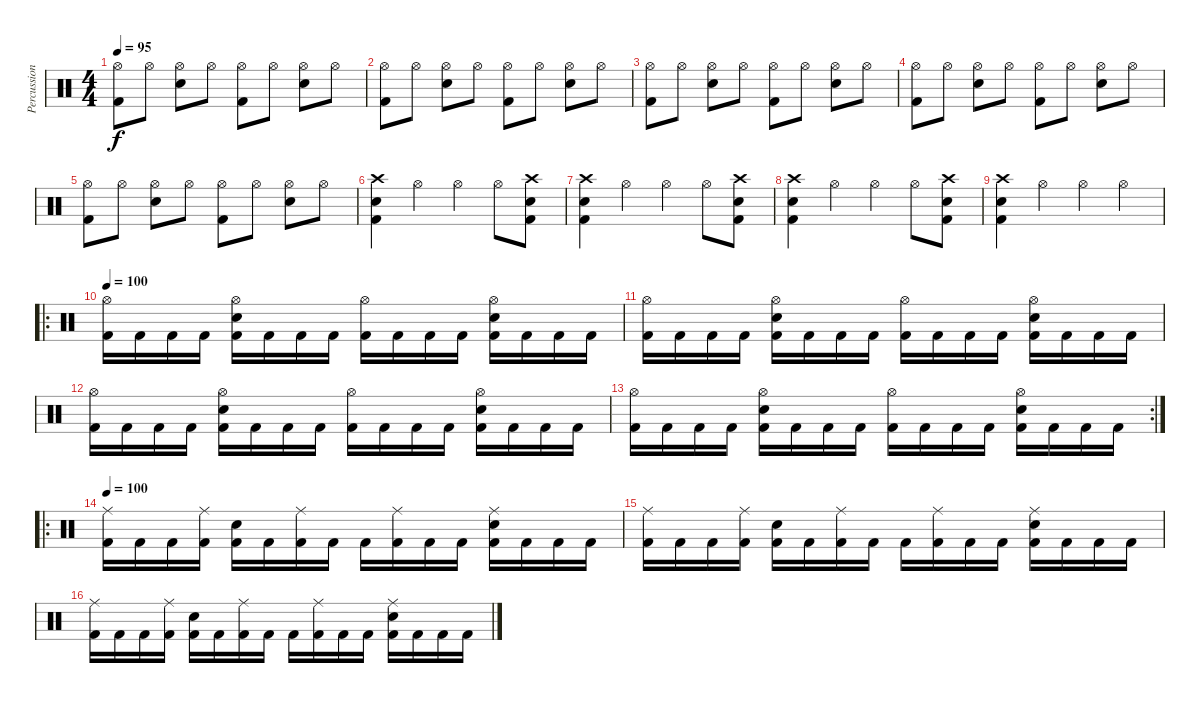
\track ("Percussion" "Percussion") {instrument percussion}
\staff {score}
\articulation defaults
\ts (4 4)
\tempo 95
\clef neutral
\ks c
("Hi-Hat (open)" "Kick (hit) 2").8{dy f} "Hi-Hat (open)".8 ("Hi-Hat (open)" "Electric Snare (hit)").8 "Hi-Hat (open)".8 ("Hi-Hat (open)" "Kick (hit) 2").8 "Hi-Hat (open)".8 ("Hi-Hat (open)" "Electric Snare (hit)").8 "Hi-Hat (open)".8 |
("Hi-Hat (open)" "Kick (hit) 2").8 "Hi-Hat (open)".8 ("Hi-Hat (open)" "Electric Snare (hit)").8 "Hi-Hat (open)".8 ("Hi-Hat (open)" "Kick (hit) 2").8 "Hi-Hat (open)".8 ("Hi-Hat (open)" "Electric Snare (hit)").8 "Hi-Hat (open)".8 |
("Hi-Hat (open)" "Kick (hit) 2").8 "Hi-Hat (open)".8 ("Hi-Hat (open)" "Electric Snare (hit)").8 "Hi-Hat (open)".8 ("Hi-Hat (open)" "Kick (hit) 2").8 "Hi-Hat (open)".8 ("Hi-Hat (open)" "Electric Snare (hit)").8 "Hi-Hat (open)".8 |
("Hi-Hat (open)" "Kick (hit) 2").8 "Hi-Hat (open)".8 ("Hi-Hat (open)" "Electric Snare (hit)").8 "Hi-Hat (open)".8 ("Hi-Hat (open)" "Kick (hit) 2").8 "Hi-Hat (open)".8 ("Hi-Hat (open)" "Electric Snare (hit)").8 "Hi-Hat (open)".8 |
("Hi-Hat (open)" "Kick (hit) 2").8 "Hi-Hat (open)".8 ("Hi-Hat (open)" "Electric Snare (hit)").8 "Hi-Hat (open)".8 ("Hi-Hat (open)" "Kick (hit) 2").8 "Hi-Hat (open)".8 ("Hi-Hat (open)" "Electric Snare (hit)").8 "Hi-Hat (open)".8 |
("Crash high (hit)" "Electric Snare (hit)" "Kick (hit) 2").4 "Hi-Hat (open)".4 "Hi-Hat (open)".4 "Hi-Hat (open)".8 ("Crash high (hit)" "Electric Snare (hit)" "Kick (hit) 2").8 |
("Crash high (hit)" "Electric Snare (hit)" "Kick (hit) 2").4 "Hi-Hat (open)".4 "Hi-Hat (open)".4 "Hi-Hat (open)".8 ("Crash high (hit)" "Electric Snare (hit)" "Kick (hit) 2").8 |
("Crash high (hit)" "Electric Snare (hit)" "Kick (hit) 2").4 "Hi-Hat (open)".4 "Hi-Hat (open)".4 "Hi-Hat (open)".8 ("Crash high (hit)" "Electric Snare (hit)" "Kick (hit) 2").8 |
("Crash high (hit)" "Electric Snare (hit)" "Kick (hit) 2").4 "Hi-Hat (open)".4 "Hi-Hat (open)".4 "Hi-Hat (open)".4 |
\ro
\tempo 100
("Hi-Hat (open)" "Kick (hit) 2").16 "Kick (hit) 2".16 "Kick (hit) 2".16 "Kick (hit) 2".16 ("Hi-Hat (open)" "Electric Snare (hit)" "Kick (hit) 2").16 "Kick (hit) 2".16 "Kick (hit) 2".16 "Kick (hit) 2".16 ("Hi-Hat (open)" "Kick (hit) 2").16 "Kick (hit) 2".16 "Kick (hit) 2".16 "Kick (hit) 2".16 ("Hi-Hat (open)" "Electric Snare (hit)" "Kick (hit) 2").16 "Kick (hit) 2".16 "Kick (hit) 2".16 "Kick (hit) 2".16 |
("Hi-Hat (open)" "Kick (hit) 2").16 "Kick (hit) 2".16 "Kick (hit) 2".16 "Kick (hit) 2".16 ("Hi-Hat (open)" "Electric Snare (hit)" "Kick (hit) 2").16 "Kick (hit) 2".16 "Kick (hit) 2".16 "Kick (hit) 2".16 ("Hi-Hat (open)" "Kick (hit) 2").16 "Kick (hit) 2".16 "Kick (hit) 2".16 "Kick (hit) 2".16 ("Hi-Hat (open)" "Electric Snare (hit)" "Kick (hit) 2").16 "Kick (hit) 2".16 "Kick (hit) 2".16 "Kick (hit) 2".16 |
("Hi-Hat (open)" "Kick (hit) 2").16 "Kick (hit) 2".16 "Kick (hit) 2".16 "Kick (hit) 2".16 ("Hi-Hat (open)" "Electric Snare (hit)" "Kick (hit) 2").16 "Kick (hit) 2".16 "Kick (hit) 2".16 "Kick (hit) 2".16 ("Hi-Hat (open)" "Kick (hit) 2").16 "Kick (hit) 2".16 "Kick (hit) 2".16 "Kick (hit) 2".16 ("Hi-Hat (open)" "Electric Snare (hit)" "Kick (hit) 2").16 "Kick (hit) 2".16 "Kick (hit) 2".16 "Kick (hit) 2".16 |
\rc 2
("Hi-Hat (open)" "Kick (hit) 2").16 "Kick (hit) 2".16 "Kick (hit) 2".16 "Kick (hit) 2".16 ("Hi-Hat (open)" "Electric Snare (hit)" "Kick (hit) 2").16 "Kick (hit) 2".16 "Kick (hit) 2".16 "Kick (hit) 2".16 ("Hi-Hat (open)" "Kick (hit) 2").16 "Kick (hit) 2".16 "Kick (hit) 2".16 "Kick (hit) 2".16 ("Hi-Hat (open)" "Electric Snare (hit)" "Kick (hit) 2").16 "Kick (hit) 2".16 "Kick (hit) 2".16 "Kick (hit) 2".16 |
\ro
\tempo 100
("Ride (middle)" "Kick (hit) 2").16 "Kick (hit) 2".16 "Kick (hit) 2".16 ("Ride (middle)" "Kick (hit) 2").16 ("Electric Snare (hit)" "Kick (hit) 2").16 "Kick (hit) 2".16 ("Ride (middle)" "Kick (hit) 2").16 "Kick (hit) 2".16 "Kick (hit) 2".16 ("Ride (middle)" "Kick (hit) 2").16 "Kick (hit) 2".16 "Kick (hit) 2".16 ("Ride (middle)" "Electric Snare (hit)" "Kick (hit) 2").16 "Kick (hit) 2".16 "Kick (hit) 2".16 "Kick (hit) 2".16 |
("Ride (middle)" "Kick (hit) 2").16 "Kick (hit) 2".16 "Kick (hit) 2".16 ("Ride (middle)" "Kick (hit) 2").16 ("Electric Snare (hit)" "Kick (hit) 2").16 "Kick (hit) 2".16 ("Ride (middle)" "Kick (hit) 2").16 "Kick (hit) 2".16 "Kick (hit) 2".16 ("Ride (middle)" "Kick (hit) 2").16 "Kick (hit) 2".16 "Kick (hit) 2".16 ("Ride (middle)" "Electric Snare (hit)" "Kick (hit) 2").16 "Kick (hit) 2".16 "Kick (hit) 2".16 "Kick (hit) 2".16 |
("Ride (middle)" "Kick (hit) 2").16 "Kick (hit) 2".16 "Kick (hit) 2".16 ("Ride (middle)" "Kick (hit) 2").16 ("Electric Snare (hit)" "Kick (hit) 2").16 "Kick (hit) 2".16 ("Ride (middle)" "Kick (hit) 2").16 "Kick (hit) 2".16 "Kick (hit) 2".16 ("Ride (middle)" "Kick (hit) 2").16 "Kick (hit) 2".16 "Kick (hit) 2".16 ("Ride (middle)" "Electric Snare (hit)" "Kick (hit) 2").16 "Kick (hit) 2".16 "Kick (hit) 2".16 "Kick (hit) 2".16
